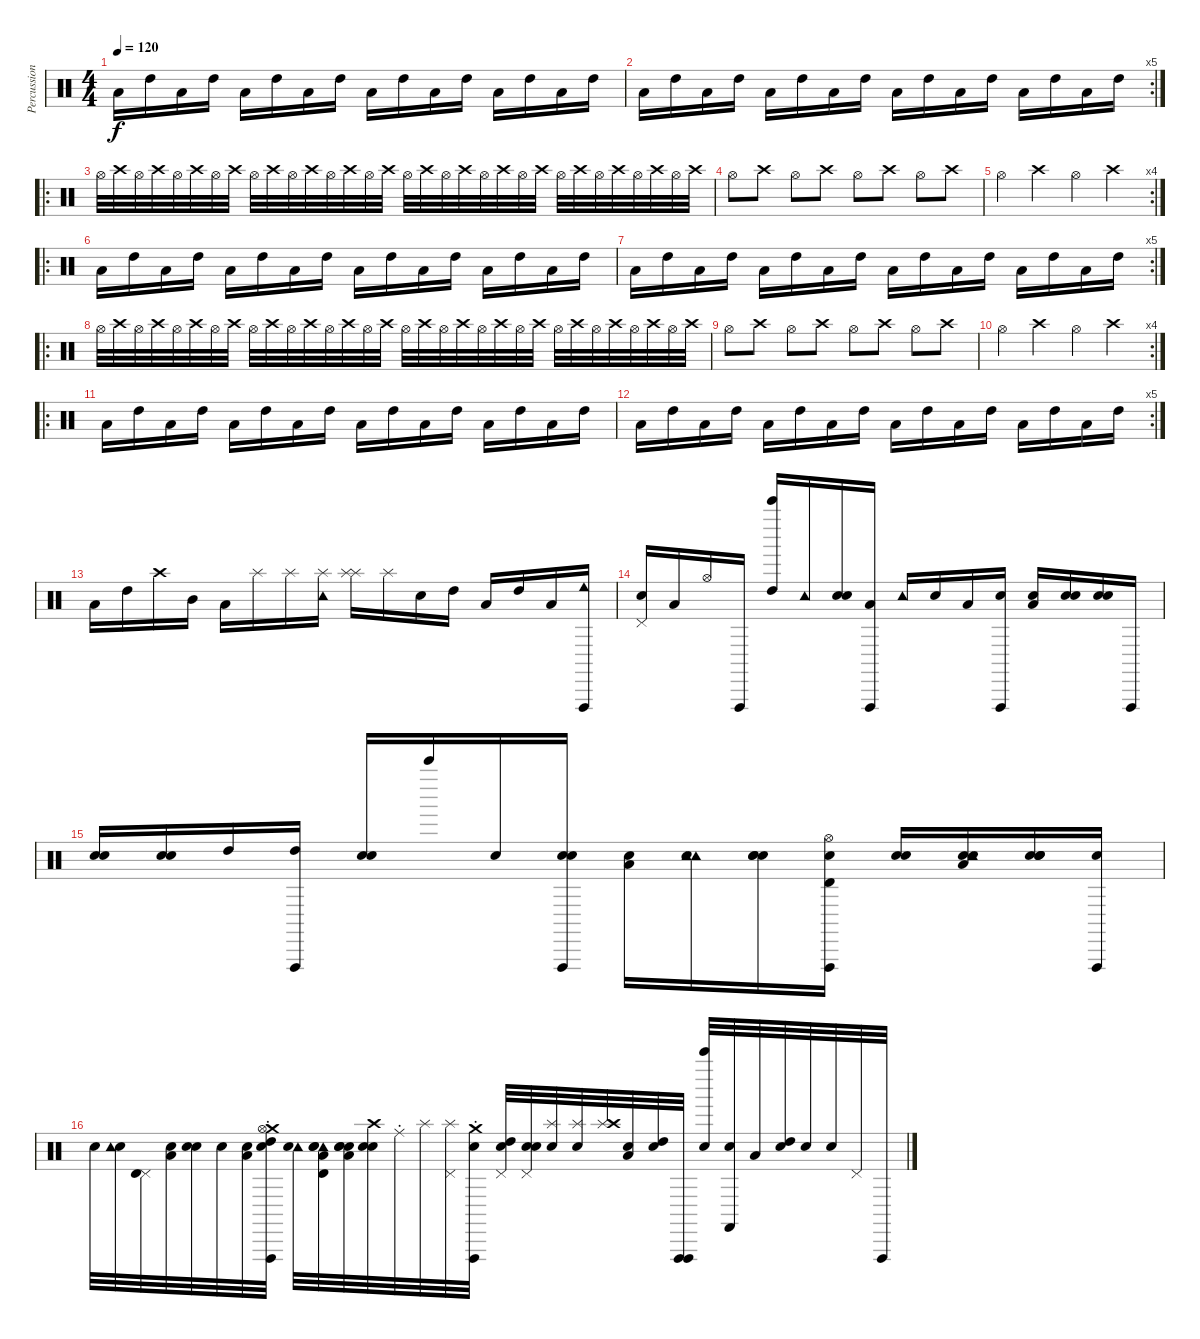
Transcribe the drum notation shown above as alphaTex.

\track ("Percussion" "Percussion") {instrument percussion}
\staff {score}
\articulation defaults
\ts (4 4)
\tempo 120
\clef neutral
\ks c "Low Tom (hit)".16{dy f} "High Tom (hit)".16 "Low Tom (hit)".16 "High Tom (hit)".16 "Low Tom (hit)".16 "High Tom (hit)".16 "Low Tom (hit)".16 "High Tom (hit)".16 "Low Tom (hit)".16 "High Tom (hit)".16 "Low Tom (hit)".16 "High Tom (hit)".16 "Low Tom (hit)".16 "High Tom (hit)".16 "Low Tom (hit)".16 "High Tom (hit)".16
|
\rc 5 "Low Tom (hit)".16 "High Tom (hit)".16 "Low Tom (hit)".16 "High Tom (hit)".16 "Low Tom (hit)".16 "High Tom (hit)".16 "Low Tom (hit)".16 "High Tom (hit)".16 "Low Tom (hit)".16 "High Tom (hit)".16 "Low Tom (hit)".16 "High Tom (hit)".16 "Low Tom (hit)".16 "High Tom (hit)".16 "Low Tom (hit)".16 "High Tom (hit)".16
|
\ro "Hi-Hat (open)".32 "Crash high (hit)".32 "Hi-Hat (open)".32 "Crash high (hit)".32 "Hi-Hat (open)".32 "Crash high (hit)".32 "Hi-Hat (open)".32 "Crash high (hit)".32 "Hi-Hat (open)".32 "Crash high (hit)".32 "Hi-Hat (open)".32 "Crash high (hit)".32 "Hi-Hat (open)".32 "Crash high (hit)".32 "Hi-Hat (open)".32 "Crash high (hit)".32 "Hi-Hat (open)".32 "Crash high (hit)".32 "Hi-Hat (open)".32 "Crash high (hit)".32 "Hi-Hat (open)".32 "Crash high (hit)".32 "Hi-Hat (open)".32 "Crash high (hit)".32 "Hi-Hat (open)".32 "Crash high (hit)".32 "Hi-Hat (open)".32 "Crash high (hit)".32 "Hi-Hat (open)".32 "Crash high (hit)".32 "Hi-Hat (open)".32 "Crash high (hit)".32
|
"Hi-Hat (open)".8 "Crash high (hit)".8 "Hi-Hat (open)".8 "Crash high (hit)".8 "Hi-Hat (open)".8 "Crash high (hit)".8 "Hi-Hat (open)".8 "Crash high (hit)".8 |
\rc 4 "Hi-Hat (open)".4 "Crash high (hit)".4 "Hi-Hat (open)".4 "Crash high (hit)".4
|
\ro "Low Tom (hit)".16 "High Tom (hit)".16 "Low Tom (hit)".16 "High Tom (hit)".16 "Low Tom (hit)".16 "High Tom (hit)".16 "Low Tom (hit)".16 "High Tom (hit)".16 "Low Tom (hit)".16 "High Tom (hit)".16 "Low Tom (hit)".16 "High Tom (hit)".16 "Low Tom (hit)".16 "High Tom (hit)".16 "Low Tom (hit)".16 "High Tom (hit)".16
|
\rc 5 "Low Tom (hit)".16 "High Tom (hit)".16 "Low Tom (hit)".16 "High Tom (hit)".16 "Low Tom (hit)".16 "High Tom (hit)".16 "Low Tom (hit)".16 "High Tom (hit)".16 "Low Tom (hit)".16 "High Tom (hit)".16 "Low Tom (hit)".16 "High Tom (hit)".16 "Low Tom (hit)".16 "High Tom (hit)".16 "Low Tom (hit)".16 "High Tom (hit)".16
|
\ro "Hi-Hat (open)".32 "Crash high (hit)".32 "Hi-Hat (open)".32 "Crash high (hit)".32 "Hi-Hat (open)".32 "Crash high (hit)".32 "Hi-Hat (open)".32 "Crash high (hit)".32 "Hi-Hat (open)".32 "Crash high (hit)".32 "Hi-Hat (open)".32 "Crash high (hit)".32 "Hi-Hat (open)".32 "Crash high (hit)".32 "Hi-Hat (open)".32 "Crash high (hit)".32 "Hi-Hat (open)".32 "Crash high (hit)".32 "Hi-Hat (open)".32 "Crash high (hit)".32 "Hi-Hat (open)".32 "Crash high (hit)".32 "Hi-Hat (open)".32 "Crash high (hit)".32 "Hi-Hat (open)".32 "Crash high (hit)".32 "Hi-Hat (open)".32 "Crash high (hit)".32 "Hi-Hat (open)".32 "Crash high (hit)".32 "Hi-Hat (open)".32 "Crash high (hit)".32
|
"Hi-Hat (open)".8 "Crash high (hit)".8 "Hi-Hat (open)".8 "Crash high (hit)".8 "Hi-Hat (open)".8 "Crash high (hit)".8 "Hi-Hat (open)".8 "Crash high (hit)".8 |
\rc 4 "Hi-Hat (open)".4 "Crash high (hit)".4 "Hi-Hat (open)".4 "Crash high (hit)".4
|
\ro "Low Tom (hit)".16 "High Tom (hit)".16 "Low Tom (hit)".16 "High Tom (hit)".16 "Low Tom (hit)".16 "High Tom (hit)".16 "Low Tom (hit)".16 "High Tom (hit)".16 "Low Tom (hit)".16 "High Tom (hit)".16 "Low Tom (hit)".16 "High Tom (hit)".16 "Low Tom (hit)".16 "High Tom (hit)".16 "Low Tom (hit)".16 "High Tom (hit)".16
|
\rc 5 "Low Tom (hit)".16 "High Tom (hit)".16 "Low Tom (hit)".16 "High Tom (hit)".16 "Low Tom (hit)".16 "High Tom (hit)".16 "Low Tom (hit)".16 "High Tom (hit)".16 "Low Tom (hit)".16 "High Tom (hit)".16 "Low Tom (hit)".16 "High Tom (hit)".16 "Low Tom (hit)".16 "High Tom (hit)".16 "Low Tom (hit)".16 "High Tom (hit)".16
|
"Low Tom (hit)".16 "High Tom (hit)".16 "Crash high (hit)".16 "Mid Tom (hit)".16 "Low Tom (hit)".16 "Splash (hit)".16 "Splash (hit)".16 ("Splash (hit)" "Tambourine (hit)").16 ("Splash (hit)" "Splash (hit)").16 "Splash (hit)".16 "Snare (hit)".16 "High Tom (hit)".16 "Low Tom (hit)".16 "High Tom (hit)".16 "Low Tom (hit)".16 ("Cowbell low (hit)" "Vibraslap (hit)").16 |
("Snare (hit)" "Pedal Hi-Hat (hit)").16 "Low Tom (hit)".16 "Hi-Hat (open)".16 "Vibraslap (hit)".16 ("Bell Tree (hit)" "High Tom (hit)").16 "Tambourine (hit)".16 ("Snare (hit)" "Snare (hit)").16 ("Vibraslap (hit)" "Low Tom (hit)").16 "Tambourine (hit)".16 "Snare (hit)".16 "Low Tom (hit)".16 ("Snare (hit)" "Vibraslap (hit)").16 ("Low Tom (hit)" "Snare (hit)").16 ("Snare (hit)" "Snare (hit)").16 ("Snare (hit)" "Snare (hit)").16 "Vibraslap (hit)".16 |
("Snare (hit)" "Snare (hit)").16 ("Snare (hit)" "Snare (hit)").16 "High Tom (hit)".16 ("Vibraslap (hit)" "High Tom (hit)").16 ("Snare (hit)" "Snare (hit)").16 "Bell Tree (hit)".16 "Snare (hit)".16 ("Vibraslap (hit)" "Snare (hit)" "Snare (hit)").16 ("Snare (hit)" "Low Tom (hit)").16 ("Tambourine (hit)" "Snare (hit)" "Tambourine (hit)").16 ("Snare (hit)" "Snare (hit)" "Snare (hit)").16 ("Vibraslap (hit)" "Timbale high (hit)" "Snare (hit)" "Hi-Hat (open)").16 ("Snare (hit)" "Snare (hit)").16 ("Snare (hit)" "Tambourine (hit)" "Snare (hit)" "Low Tom (hit)").16 ("Snare (hit)" "Snare (hit)" "Snare (hit)" "Snare (hit)").16 ("Vibraslap (hit)" "Snare (hit)").16 |
"Snare (hit)".32 ("Snare (hit)" "Tambourine (hit)").32 ("Pedal Hi-Hat (hit)" "Timbale high (hit)").32 ("Snare (hit)" "Low Tom (hit)").32 ("Snare (hit)" "Snare (hit)").32 "Snare (hit)".32 ("Low Tom (hit)" "Snare (hit)").32 ("High Tom (hit)" "Crash medium (choke)" "Snare (hit)" "Vibraslap (hit)" "Hi-Hat (open)").32 ("Tambourine (hit)" "Snare (hit)").32 ("Low Tom (hit)" "Tambourine (hit)" "Snare (hit)" "Snare (hit)" "Timbale high (hit)").32 ("Low Tom (hit)" "Snare (hit)" "Snare (hit)" "Snare (hit)").32 ("Crash high (hit)" "Snare (hit)" "Snare (hit)").32 "Ride (choke)".32 "Splash (hit)".32 ("Pedal Hi-Hat (hit)" "Splash (hit)").32 ("Vibraslap (hit)" "Crash medium (choke)" "Snare (hit)").32 ("Pedal Hi-Hat (hit)" "High Tom (hit)" "Snare (hit)").32 ("Pedal Hi-Hat (hit)" "Snare (hit)" "Snare (hit)").32 ("Splash (hit)" "Snare (hit)").32 ("Splash (hit)" "Snare (hit)").32 ("Splash (hit)" "Crash high (hit)").32 ("Snare (hit)" "Low Tom (hit)").32 ("Snare (hit)" "High Tom (hit)").32 ("Vibraslap (hit)" "Vibraslap (hit)").32 ("Snare (hit)" "Bell Tree (hit)").32 ("Snare (hit)" "Castanets (hit)").32 "Low Tom (hit)".32 ("High Tom (hit)" "Snare (hit)").32 "Snare (hit)".32 "Snare (hit)".32 "Pedal Hi-Hat (hit)".32 "Vibraslap (hit)".32
